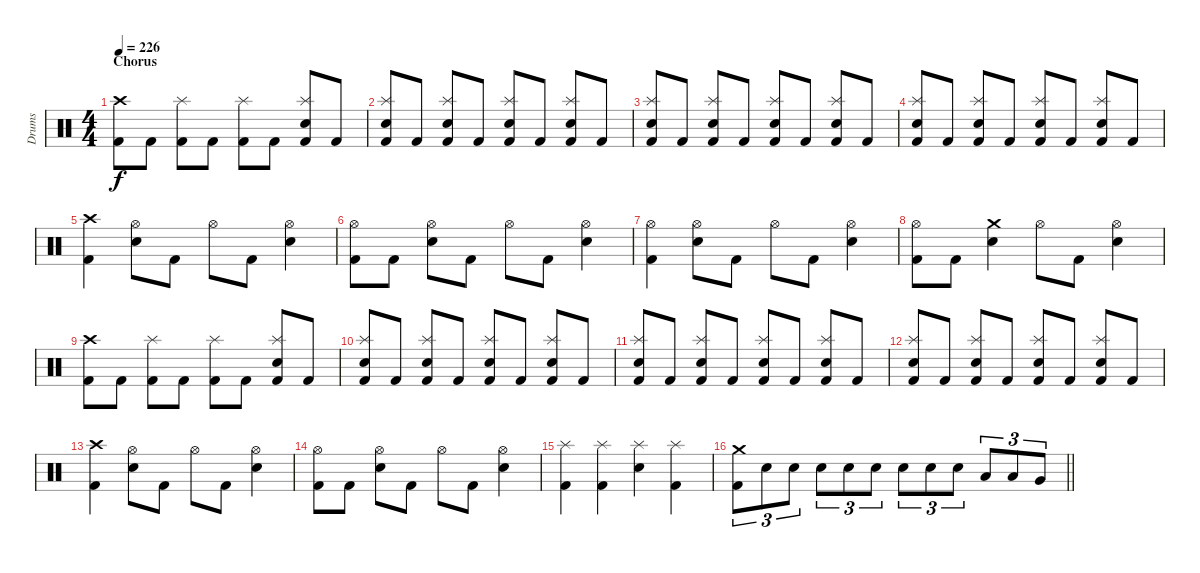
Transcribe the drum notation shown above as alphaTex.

\track ("Drums" "Drums") {instrument percussion}
\staff {score}
\articulation defaults
\ts (4 4)
\section ("" "Chorus")
\tempo 226
\clef neutral
\ks c
("Crash high (hit)" "Kick (hit) 2").8{dy f} "Kick (hit) 2".8 ("Splash (hit)" "Kick (hit) 2").8 "Kick (hit) 2".8 ("Splash (hit)" "Kick (hit) 2").8 "Kick (hit) 2".8 ("Splash (hit)" "Snare (hit) 2" "Kick (hit) 2").8 "Kick (hit) 2".8 |
("Splash (hit)" "Snare (hit) 2" "Kick (hit) 2").8 "Kick (hit) 2".8 ("Splash (hit)" "Snare (hit) 2" "Kick (hit) 2").8 "Kick (hit) 2".8 ("Splash (hit)" "Snare (hit) 2" "Kick (hit) 2").8 "Kick (hit) 2".8 ("Splash (hit)" "Snare (hit) 2" "Kick (hit) 2").8 "Kick (hit) 2".8 |
("Splash (hit)" "Snare (hit) 2" "Kick (hit) 2").8 "Kick (hit) 2".8 ("Splash (hit)" "Snare (hit) 2" "Kick (hit) 2").8 "Kick (hit) 2".8 ("Splash (hit)" "Snare (hit) 2" "Kick (hit) 2").8 "Kick (hit) 2".8 ("Splash (hit)" "Snare (hit) 2" "Kick (hit) 2").8 "Kick (hit) 2".8 |
("Splash (hit)" "Snare (hit) 2" "Kick (hit) 2").8 "Kick (hit) 2".8 ("Splash (hit)" "Snare (hit) 2" "Kick (hit) 2").8 "Kick (hit) 2".8 ("Splash (hit)" "Snare (hit) 2" "Kick (hit) 2").8 "Kick (hit) 2".8 ("Splash (hit)" "Snare (hit) 2" "Kick (hit) 2").8 "Kick (hit) 2".8 |
("Crash high (hit)" "Kick (hit) 2").4 ("Hi-Hat (open)" "Snare (hit) 2").8 "Kick (hit) 2".8 "Hi-Hat (open)".8 "Kick (hit) 2".8 ("Hi-Hat (open)" "Snare (hit) 2").4 |
("Hi-Hat (open)" "Kick (hit) 2").8 "Kick (hit) 2".8 ("Hi-Hat (open)" "Snare (hit) 2").8 "Kick (hit) 2".8 "Hi-Hat (open)".8 "Kick (hit) 2".8 ("Hi-Hat (open)" "Snare (hit) 2").4 |
("Hi-Hat (open)" "Kick (hit) 2").4 ("Hi-Hat (open)" "Snare (hit) 2").8 "Kick (hit) 2".8 "Hi-Hat (open)".8 "Kick (hit) 2".8 ("Hi-Hat (open)" "Snare (hit) 2").4 |
("Hi-Hat (open)" "Kick (hit) 2").8 "Kick (hit) 2".8 ("Crash medium (hit)" "Snare (hit) 2").4 "Hi-Hat (open)".8 "Kick (hit) 2".8 ("Hi-Hat (open)" "Snare (hit) 2").4 |
("Crash high (hit)" "Kick (hit) 2").8 "Kick (hit) 2".8 ("Splash (hit)" "Kick (hit) 2").8 "Kick (hit) 2".8 ("Splash (hit)" "Kick (hit) 2").8 "Kick (hit) 2".8 ("Splash (hit)" "Snare (hit) 2" "Kick (hit) 2").8 "Kick (hit) 2".8 |
("Splash (hit)" "Snare (hit) 2" "Kick (hit) 2").8 "Kick (hit) 2".8 ("Splash (hit)" "Snare (hit) 2" "Kick (hit) 2").8 "Kick (hit) 2".8 ("Splash (hit)" "Snare (hit) 2" "Kick (hit) 2").8 "Kick (hit) 2".8 ("Splash (hit)" "Snare (hit) 2" "Kick (hit) 2").8 "Kick (hit) 2".8 |
("Splash (hit)" "Snare (hit) 2" "Kick (hit) 2").8 "Kick (hit) 2".8 ("Splash (hit)" "Snare (hit) 2" "Kick (hit) 2").8 "Kick (hit) 2".8 ("Splash (hit)" "Snare (hit) 2" "Kick (hit) 2").8 "Kick (hit) 2".8 ("Splash (hit)" "Snare (hit) 2" "Kick (hit) 2").8 "Kick (hit) 2".8 |
("Splash (hit)" "Snare (hit) 2" "Kick (hit) 2").8 "Kick (hit) 2".8 ("Splash (hit)" "Snare (hit) 2" "Kick (hit) 2").8 "Kick (hit) 2".8 ("Splash (hit)" "Snare (hit) 2" "Kick (hit) 2").8 "Kick (hit) 2".8 ("Splash (hit)" "Snare (hit) 2" "Kick (hit) 2").8 "Kick (hit) 2".8 |
("Crash high (hit)" "Kick (hit) 2").4 ("Hi-Hat (open)" "Snare (hit) 2").8 "Kick (hit) 2".8 "Hi-Hat (open)".8 "Kick (hit) 2".8 ("Hi-Hat (open)" "Snare (hit) 2").4 |
("Hi-Hat (open)" "Kick (hit) 2").8 "Kick (hit) 2".8 ("Hi-Hat (open)" "Snare (hit) 2").8 "Kick (hit) 2".8 "Hi-Hat (open)".8 "Kick (hit) 2".8 ("Hi-Hat (open)" "Snare (hit) 2").4 |
("Splash (hit)" "Kick (hit) 2").4 ("Splash (hit)" "Kick (hit) 2").4 ("Splash (hit)" "Snare (hit) 2").4 ("Splash (hit)" "Kick (hit) 2").4 |
\barLineRight lightlight
("Crash medium (hit)" "Kick (hit) 2").8{tu (3 2)} "Snare (hit) 2".8{tu (3 2)} "Snare (hit) 2".8{tu (3 2)} "Snare (hit) 2".8{tu (3 2)} "Snare (hit) 2".8{tu (3 2)} "Snare (hit) 2".8{tu (3 2)} "Snare (hit) 2".8{tu (3 2)} "Snare (hit) 2".8{tu (3 2)} "Snare (hit) 2".8{tu (3 2)} "Low Tom (hit)".8{tu (3 2)} "Low Tom (hit)".8{tu (3 2)} "Very Low Tom (hit)".8{tu (3 2)}
